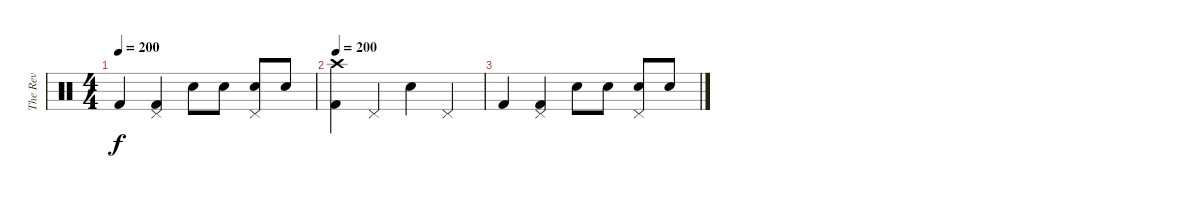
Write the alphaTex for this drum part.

\track ("The Rev" "The Rev") {instrument percussion}
\staff {score}
\articulation defaults
\ts (4 4)
\tempo 200
\clef neutral
\ks c "Kick (hit) 2".4{dy f}
("Pedal Hi-Hat (hit)" "Kick (hit) 2").4 "Electric Snare (hit)".8 "Electric Snare (hit)".8 ("Pedal Hi-Hat (hit)" "Electric Snare (hit)").8 "Electric Snare (hit)".8 |
\tempo 200
("Crash high (hit)" "Kick (hit) 2").4 "Pedal Hi-Hat (hit)".4 "Electric Snare (hit)".4 "Pedal Hi-Hat (hit)".4 |
"Kick (hit) 2".4 ("Pedal Hi-Hat (hit)" "Kick (hit) 2").4 "Electric Snare (hit)".8 "Electric Snare (hit)".8 ("Pedal Hi-Hat (hit)" "Electric Snare (hit)").8 "Electric Snare (hit)".8
